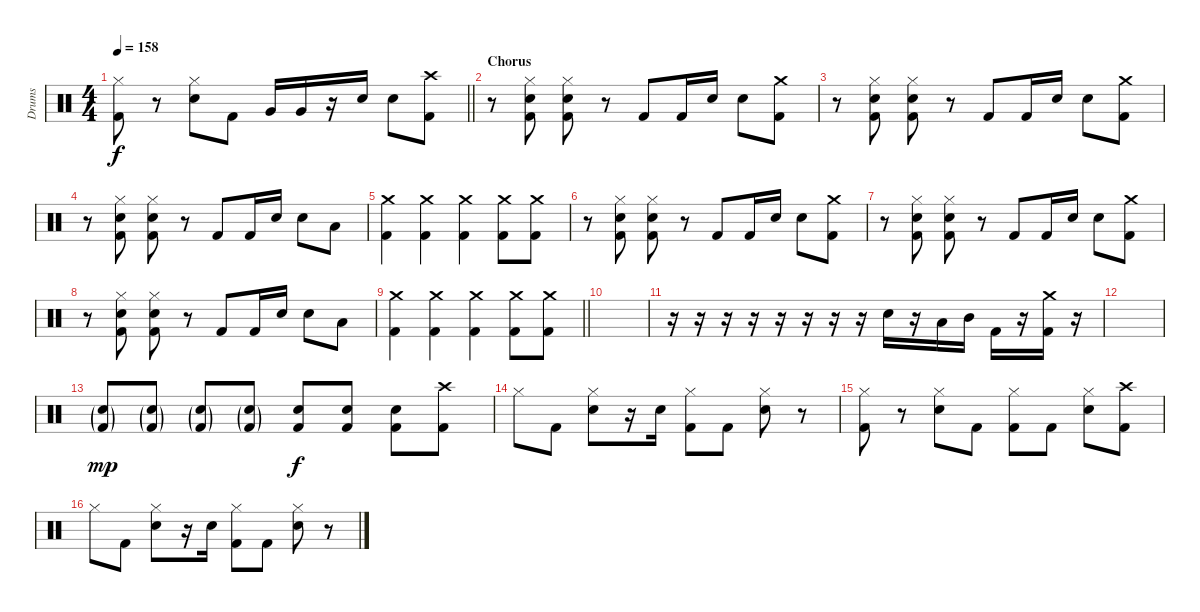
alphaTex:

\track ("Drums" "Drums") {instrument percussion}
\staff {score}
\articulation defaults
\ts (4 4)
\tempo 158
\clef neutral
\barLineRight lightlight
\ks c
("Hi-Hat (closed)" "Kick (hit) 2").8{dy f} r.8 ("Hi-Hat (closed)" "Snare (hit) 2").8 "Kick (hit) 2".8 "Very Low Tom (hit)".16 "Very Low Tom (hit)".16 r.16 "Snare (hit) 2".16 "Snare (hit) 2".8 ("Crash high (hit)" "Kick (hit) 2").8 |
\section ("" "Chorus")
r.8 ("Hi-Hat (closed)" "Snare (hit) 2" "Kick (hit) 2").8 ("Hi-Hat (closed)" "Snare (hit) 2" "Kick (hit) 2").8 r.8 "Kick (hit) 2".8 "Kick (hit) 2".16 "Snare (hit) 2".16 "Snare (hit) 2".8 ("Crash medium (hit)" "Kick (hit) 2").8 |
r.8 ("Hi-Hat (closed)" "Snare (hit) 2" "Kick (hit) 2").8 ("Hi-Hat (closed)" "Snare (hit) 2" "Kick (hit) 2").8 r.8 "Kick (hit) 2".8 "Kick (hit) 2".16 "Snare (hit) 2".16 "Snare (hit) 2".8 ("Crash medium (hit)" "Kick (hit) 2").8 |
r.8 ("Hi-Hat (closed)" "Snare (hit) 2" "Kick (hit) 2").8 ("Hi-Hat (closed)" "Snare (hit) 2" "Kick (hit) 2").8 r.8 "Kick (hit) 2".8 "Kick (hit) 2".16 "Snare (hit) 2".16 "Snare (hit) 2".8 "Low Tom (hit)".8 |
("Crash medium (hit)" "Kick (hit) 2").4 ("Crash medium (hit)" "Kick (hit) 2").4 ("Crash medium (hit)" "Kick (hit) 2").4 ("Crash medium (hit)" "Kick (hit) 2").8 ("Crash medium (hit)" "Kick (hit) 2").8 |
r.8 ("Hi-Hat (closed)" "Snare (hit) 2" "Kick (hit) 2").8 ("Hi-Hat (closed)" "Snare (hit) 2" "Kick (hit) 2").8 r.8 "Kick (hit) 2".8 "Kick (hit) 2".16 "Snare (hit) 2".16 "Snare (hit) 2".8 ("Crash medium (hit)" "Kick (hit) 2").8 |
r.8 ("Hi-Hat (closed)" "Snare (hit) 2" "Kick (hit) 2").8 ("Hi-Hat (closed)" "Snare (hit) 2" "Kick (hit) 2").8 r.8 "Kick (hit) 2".8 "Kick (hit) 2".16 "Snare (hit) 2".16 "Snare (hit) 2".8 ("Crash medium (hit)" "Kick (hit) 2").8 |
r.8 ("Hi-Hat (closed)" "Snare (hit) 2" "Kick (hit) 2").8 ("Hi-Hat (closed)" "Snare (hit) 2" "Kick (hit) 2").8 r.8 "Kick (hit) 2".8 "Kick (hit) 2".16 "Snare (hit) 2".16 "Snare (hit) 2".8 "Low Tom (hit)".8 |
\barLineRight lightlight
("Crash medium (hit)" "Kick (hit) 2").4 ("Crash medium (hit)" "Kick (hit) 2").4 ("Crash medium (hit)" "Kick (hit) 2").4 ("Crash medium (hit)" "Kick (hit) 2").8 ("Crash medium (hit)" "Kick (hit) 2").8 |
|
r.16 r.16 r.16 r.16 r.16 r.16 r.16 r.16 "Snare (hit) 2".16 r.16 "Low Tom (hit)".16 "Mid Tom (hit)".16 "Kick (hit) 2".16 r.16 ("Crash medium (hit)" "Kick (hit) 2").16 r.16 |
|
("Snare (hit) 2"{g} "Kick (hit) 2"{g}).8{dy mp} ("Snare (hit) 2"{g} "Kick (hit) 2"{g}).8 ("Snare (hit) 2"{g} "Kick (hit) 2"{g}).8 ("Snare (hit) 2"{g} "Kick (hit) 2"{g}).8 ("Snare (hit) 2" "Kick (hit) 2").8{dy f} ("Snare (hit) 2" "Kick (hit) 2").8 ("Snare (hit) 2" "Kick (hit) 2").8 ("Crash high (hit)" "Kick (hit) 2").8 |
"Hi-Hat (closed)".8 "Kick (hit) 2".8 ("Hi-Hat (closed)" "Snare (hit) 2").8 r.16 "Snare (hit) 2".16 ("Hi-Hat (closed)" "Kick (hit) 2").8 "Kick (hit) 2".8 ("Hi-Hat (closed)" "Snare (hit) 2").8 r.8 |
("Hi-Hat (closed)" "Kick (hit) 2").8 r.8 ("Hi-Hat (closed)" "Snare (hit) 2").8 "Kick (hit) 2".8 ("Hi-Hat (closed)" "Kick (hit) 2").8 "Kick (hit) 2".8 ("Hi-Hat (closed)" "Snare (hit) 2").8 ("Crash high (hit)" "Kick (hit) 2").8 |
"Hi-Hat (closed)".8 "Kick (hit) 2".8 ("Hi-Hat (closed)" "Snare (hit) 2").8 r.16 "Snare (hit) 2".16 ("Hi-Hat (closed)" "Kick (hit) 2").8 "Kick (hit) 2".8 ("Hi-Hat (closed)" "Snare (hit) 2").8 r.8
